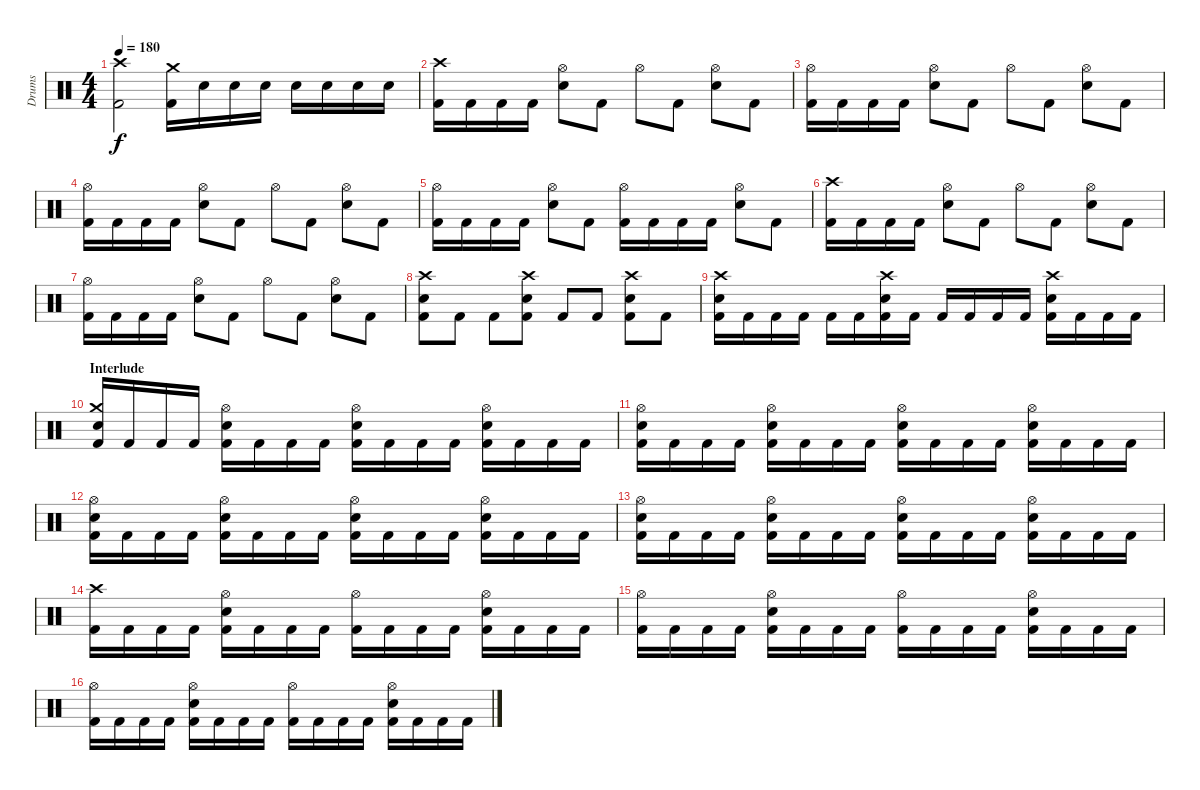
\track ("Drums" "Drums") {instrument percussion}
\staff {score}
\articulation defaults
\ts (4 4)
\tempo 180
\clef neutral
\ks c
("Crash high (hit)" "Kick (hit) 2").2{dy f} ("Crash medium (hit)" "Kick (hit) 2").16 "Electric Snare (hit)".16 "Electric Snare (hit)".16 "Electric Snare (hit)".16 "Electric Snare (hit)".16 "Electric Snare (hit)".16 "Electric Snare (hit)".16 "Electric Snare (hit)".16 |
("Crash high (hit)" "Kick (hit) 2").16 "Kick (hit) 2".16 "Kick (hit) 2".16 "Kick (hit) 2".16 ("Hi-Hat (open)" "Electric Snare (hit)").8 "Kick (hit) 2".8 "Hi-Hat (open)".8 "Kick (hit) 2".8 ("Hi-Hat (open)" "Electric Snare (hit)").8 "Kick (hit) 2".8 |
("Hi-Hat (open)" "Kick (hit) 2").16 "Kick (hit) 2".16 "Kick (hit) 2".16 "Kick (hit) 2".16 ("Hi-Hat (open)" "Electric Snare (hit)").8 "Kick (hit) 2".8 "Hi-Hat (open)".8 "Kick (hit) 2".8 ("Hi-Hat (open)" "Electric Snare (hit)").8 "Kick (hit) 2".8 |
("Hi-Hat (open)" "Kick (hit) 2").16 "Kick (hit) 2".16 "Kick (hit) 2".16 "Kick (hit) 2".16 ("Hi-Hat (open)" "Electric Snare (hit)").8 "Kick (hit) 2".8 "Hi-Hat (open)".8 "Kick (hit) 2".8 ("Hi-Hat (open)" "Electric Snare (hit)").8 "Kick (hit) 2".8 |
("Hi-Hat (open)" "Kick (hit) 2").16 "Kick (hit) 2".16 "Kick (hit) 2".16 "Kick (hit) 2".16 ("Hi-Hat (open)" "Electric Snare (hit)").8 "Kick (hit) 2".8 ("Hi-Hat (open)" "Kick (hit) 2").16 "Kick (hit) 2".16 "Kick (hit) 2".16 "Kick (hit) 2".16 ("Hi-Hat (open)" "Electric Snare (hit)").8 "Kick (hit) 2".8 |
("Crash high (hit)" "Kick (hit) 2").16 "Kick (hit) 2".16 "Kick (hit) 2".16 "Kick (hit) 2".16 ("Hi-Hat (open)" "Electric Snare (hit)").8 "Kick (hit) 2".8 "Hi-Hat (open)".8 "Kick (hit) 2".8 ("Hi-Hat (open)" "Electric Snare (hit)").8 "Kick (hit) 2".8 |
("Hi-Hat (open)" "Kick (hit) 2").16 "Kick (hit) 2".16 "Kick (hit) 2".16 "Kick (hit) 2".16 ("Hi-Hat (open)" "Electric Snare (hit)").8 "Kick (hit) 2".8 "Hi-Hat (open)".8 "Kick (hit) 2".8 ("Hi-Hat (open)" "Electric Snare (hit)").8 "Kick (hit) 2".8 |
("Crash high (hit)" "Electric Snare (hit)" "Kick (hit) 2").8 "Kick (hit) 2".8 "Kick (hit) 2".8 ("Crash high (hit)" "Electric Snare (hit)" "Kick (hit) 2").8 "Kick (hit) 2".8 "Kick (hit) 2".8 ("Crash high (hit)" "Electric Snare (hit)" "Kick (hit) 2").8 "Kick (hit) 2".8 |
("Crash high (hit)" "Electric Snare (hit)" "Kick (hit) 2").16 "Kick (hit) 2".16 "Kick (hit) 2".16 "Kick (hit) 2".16 "Kick (hit) 2".16 "Kick (hit) 2".16 ("Crash high (hit)" "Electric Snare (hit)" "Kick (hit) 2").16 "Kick (hit) 2".16 "Kick (hit) 2".16 "Kick (hit) 2".16 "Kick (hit) 2".16 "Kick (hit) 2".16 ("Crash high (hit)" "Electric Snare (hit)" "Kick (hit) 2").16 "Kick (hit) 2".16 "Kick (hit) 2".16 "Kick (hit) 2".16 |
\section ("" "Interlude")
("Crash medium (hit)" "Electric Snare (hit)" "Kick (hit) 2").16 "Kick (hit) 2".16 "Kick (hit) 2".16 "Kick (hit) 2".16 ("Hi-Hat (open)" "Electric Snare (hit)" "Kick (hit) 2").16 "Kick (hit) 2".16 "Kick (hit) 2".16 "Kick (hit) 2".16 ("Hi-Hat (open)" "Electric Snare (hit)" "Kick (hit) 2").16 "Kick (hit) 2".16 "Kick (hit) 2".16 "Kick (hit) 2".16 ("Hi-Hat (open)" "Electric Snare (hit)" "Kick (hit) 2").16 "Kick (hit) 2".16 "Kick (hit) 2".16 "Kick (hit) 2".16 |
("Hi-Hat (open)" "Electric Snare (hit)" "Kick (hit) 2").16 "Kick (hit) 2".16 "Kick (hit) 2".16 "Kick (hit) 2".16 ("Hi-Hat (open)" "Electric Snare (hit)" "Kick (hit) 2").16 "Kick (hit) 2".16 "Kick (hit) 2".16 "Kick (hit) 2".16 ("Hi-Hat (open)" "Electric Snare (hit)" "Kick (hit) 2").16 "Kick (hit) 2".16 "Kick (hit) 2".16 "Kick (hit) 2".16 ("Hi-Hat (open)" "Electric Snare (hit)" "Kick (hit) 2").16 "Kick (hit) 2".16 "Kick (hit) 2".16 "Kick (hit) 2".16 |
("Hi-Hat (open)" "Electric Snare (hit)" "Kick (hit) 2").16 "Kick (hit) 2".16 "Kick (hit) 2".16 "Kick (hit) 2".16 ("Hi-Hat (open)" "Electric Snare (hit)" "Kick (hit) 2").16 "Kick (hit) 2".16 "Kick (hit) 2".16 "Kick (hit) 2".16 ("Hi-Hat (open)" "Electric Snare (hit)" "Kick (hit) 2").16 "Kick (hit) 2".16 "Kick (hit) 2".16 "Kick (hit) 2".16 ("Hi-Hat (open)" "Electric Snare (hit)" "Kick (hit) 2").16 "Kick (hit) 2".16 "Kick (hit) 2".16 "Kick (hit) 2".16 |
("Hi-Hat (open)" "Electric Snare (hit)" "Kick (hit) 2").16 "Kick (hit) 2".16 "Kick (hit) 2".16 "Kick (hit) 2".16 ("Hi-Hat (open)" "Electric Snare (hit)" "Kick (hit) 2").16 "Kick (hit) 2".16 "Kick (hit) 2".16 "Kick (hit) 2".16 ("Hi-Hat (open)" "Electric Snare (hit)" "Kick (hit) 2").16 "Kick (hit) 2".16 "Kick (hit) 2".16 "Kick (hit) 2".16 ("Hi-Hat (open)" "Electric Snare (hit)" "Kick (hit) 2").16 "Kick (hit) 2".16 "Kick (hit) 2".16 "Kick (hit) 2".16 |
("Crash high (hit)" "Kick (hit) 2").16 "Kick (hit) 2".16 "Kick (hit) 2".16 "Kick (hit) 2".16 ("Hi-Hat (open)" "Electric Snare (hit)" "Kick (hit) 2").16 "Kick (hit) 2".16 "Kick (hit) 2".16 "Kick (hit) 2".16 ("Hi-Hat (open)" "Kick (hit) 2").16 "Kick (hit) 2".16 "Kick (hit) 2".16 "Kick (hit) 2".16 ("Hi-Hat (open)" "Electric Snare (hit)" "Kick (hit) 2").16 "Kick (hit) 2".16 "Kick (hit) 2".16 "Kick (hit) 2".16 |
("Hi-Hat (open)" "Kick (hit) 2").16 "Kick (hit) 2".16 "Kick (hit) 2".16 "Kick (hit) 2".16 ("Hi-Hat (open)" "Electric Snare (hit)" "Kick (hit) 2").16 "Kick (hit) 2".16 "Kick (hit) 2".16 "Kick (hit) 2".16 ("Hi-Hat (open)" "Kick (hit) 2").16 "Kick (hit) 2".16 "Kick (hit) 2".16 "Kick (hit) 2".16 ("Hi-Hat (open)" "Electric Snare (hit)" "Kick (hit) 2").16 "Kick (hit) 2".16 "Kick (hit) 2".16 "Kick (hit) 2".16 |
("Hi-Hat (open)" "Kick (hit) 2").16 "Kick (hit) 2".16 "Kick (hit) 2".16 "Kick (hit) 2".16 ("Hi-Hat (open)" "Electric Snare (hit)" "Kick (hit) 2").16 "Kick (hit) 2".16 "Kick (hit) 2".16 "Kick (hit) 2".16 ("Hi-Hat (open)" "Kick (hit) 2").16 "Kick (hit) 2".16 "Kick (hit) 2".16 "Kick (hit) 2".16 ("Hi-Hat (open)" "Electric Snare (hit)" "Kick (hit) 2").16 "Kick (hit) 2".16 "Kick (hit) 2".16 "Kick (hit) 2".16
